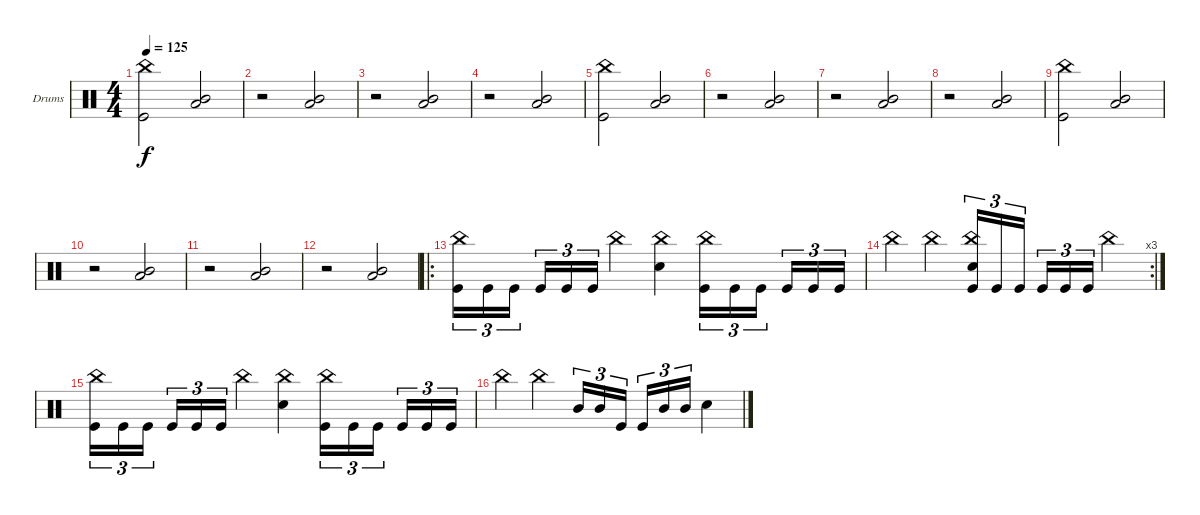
\defaultSystemsLayout 4
\bracketExtendMode groupsimilarinstruments
\firstSystemTrackNameOrientation horizontal
\otherSystemsTrackNameOrientation horizontal
\track ("Drumkit" "Drums") {instrument percussion}
\staff {score}
\articulation defaults
\ts (4 4)
\tempo 125
\clef neutral
\ks c
("Kick (hit)" "China (hit)").2{dy f} ("Low Tom (hit)" "Mid Tom (hit)").2 |
r.2 ("Low Tom (hit)" "Mid Tom (hit)").2 |
r.2 ("Low Tom (hit)" "Mid Tom (hit)").2 |
r.2 ("Low Tom (hit)" "Mid Tom (hit)").2 |
("Kick (hit)" "China (hit)").2 ("Low Tom (hit)" "Mid Tom (hit)").2 |
r.2 ("Low Tom (hit)" "Mid Tom (hit)").2 |
r.2 ("Low Tom (hit)" "Mid Tom (hit)").2 |
r.2 ("Low Tom (hit)" "Mid Tom (hit)").2 |
("Kick (hit)" "China (hit)").2 ("Low Tom (hit)" "Mid Tom (hit)").2 |
r.2 ("Low Tom (hit)" "Mid Tom (hit)").2 |
r.2 ("Low Tom (hit)" "Mid Tom (hit)").2 |
r.2 ("Low Tom (hit)" "Mid Tom (hit)").2 |
\ro
("Kick (hit)" "China (hit)").16{tu (3 2)} "Kick (hit)".16{tu (3 2)} "Kick (hit)".16{tu (3 2)} "Kick (hit)".16{tu (3 2)} "Kick (hit)".16{tu (3 2)} "Kick (hit)".16{tu (3 2)} "China (hit)".4 ("China (hit)" "Snare (hit) 2").4 ("Kick (hit)" "China (hit)").16{tu (3 2)} "Kick (hit)".16{tu (3 2)} "Kick (hit)".16{tu (3 2)} "Kick (hit)".16{tu (3 2)} "Kick (hit)".16{tu (3 2)} "Kick (hit)".16{tu (3 2)} |
\rc 3 "China (hit)".4 "China (hit)".4
("Kick (hit)" "China (hit)" "Snare (hit) 2").16{tu (3 2)} "Kick (hit)".16{tu (3 2)} "Kick (hit)".16{tu (3 2)} "Kick (hit)".16{tu (3 2)} "Kick (hit)".16{tu (3 2)} "Kick (hit)".16{tu (3 2)} "China (hit)".4 |
("Kick (hit)" "China (hit)").16{tu (3 2)} "Kick (hit)".16{tu (3 2)} "Kick (hit)".16{tu (3 2)} "Kick (hit)".16{tu (3 2)} "Kick (hit)".16{tu (3 2)} "Kick (hit)".16{tu (3 2)} "China (hit)".4 ("China (hit)" "Snare (hit) 2").4 ("Kick (hit)" "China (hit)").16{tu (3 2)} "Kick (hit)".16{tu (3 2)} "Kick (hit)".16{tu (3 2)} "Kick (hit)".16{tu (3 2)} "Kick (hit)".16{tu (3 2)} "Kick (hit)".16{tu (3 2)} |
"China (hit)".4 "China (hit)".4 "Mid Tom (hit)".16{tu (3 2)} "Mid Tom (hit)".16{tu (3 2)} "Kick (hit)".16{tu (3 2)} "Kick (hit)".16{tu (3 2)} "Mid Tom (hit)".16{tu (3 2)} "Mid Tom (hit)".16{tu (3 2)} "Snare (hit) 2".4
